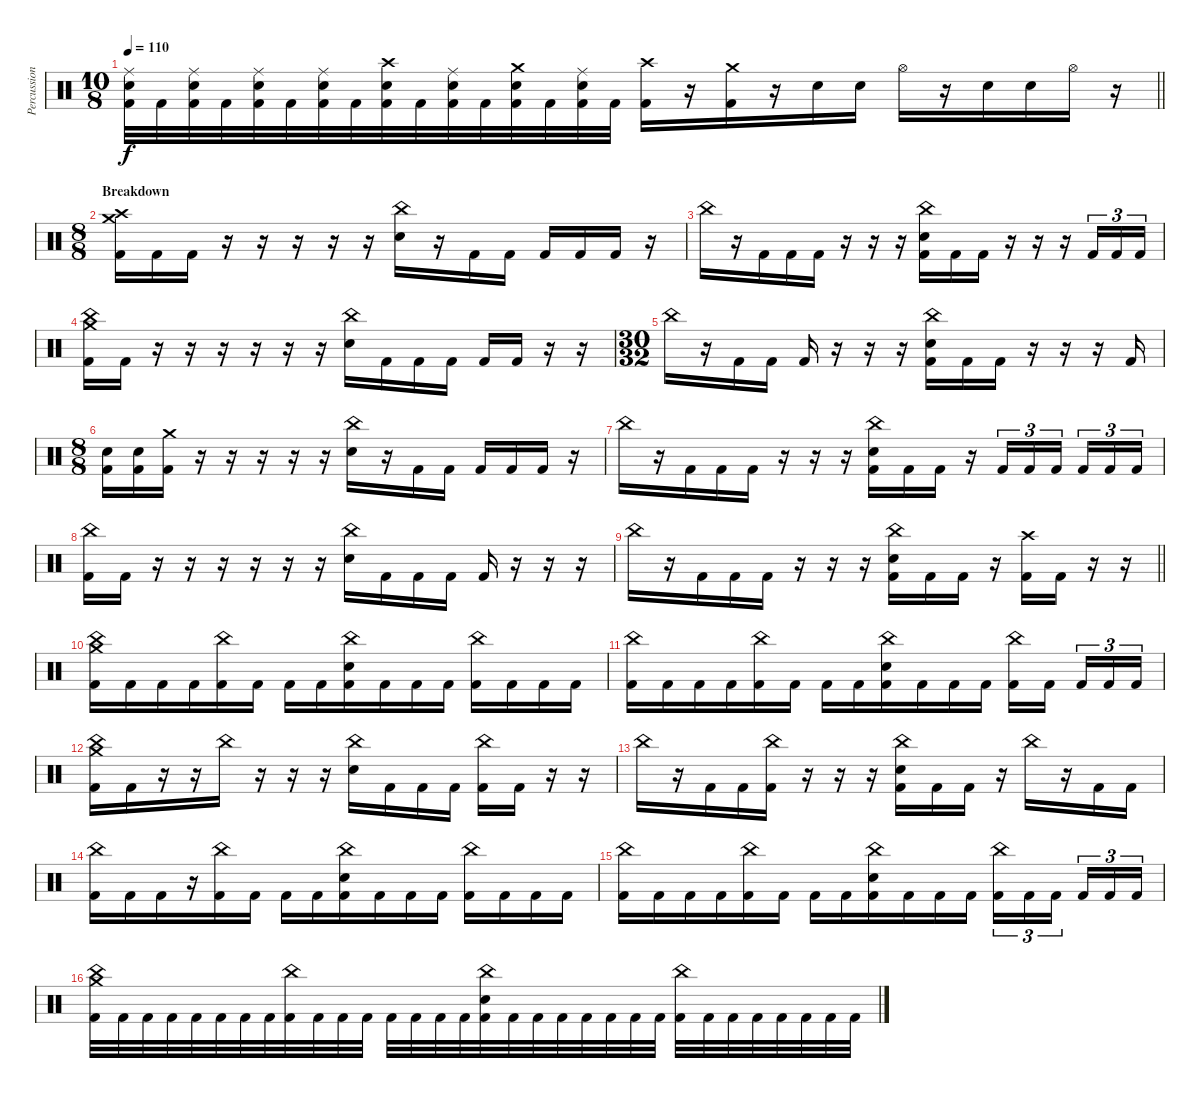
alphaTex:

\track ("Percussion" "Percussion") {instrument percussion}
\staff {score}
\articulation defaults
\ts (10 8)
\tempo 110
\clef neutral
\barLineRight lightlight
\ks c
("Ride (middle)" "Snare (hit) 2" "Kick (hit) 2").32{dy f} "Kick (hit) 2".32 ("Ride (middle)" "Snare (hit) 2" "Kick (hit) 2").32 "Kick (hit) 2".32 ("Ride (middle)" "Snare (hit) 2" "Kick (hit) 2").32 "Kick (hit) 2".32 ("Ride (middle)" "Snare (hit) 2" "Kick (hit) 2").32 "Kick (hit) 2".32 ("Crash high (hit)" "Snare (hit) 2" "Kick (hit) 2").32 "Kick (hit) 2".32 ("Ride (middle)" "Snare (hit) 2" "Kick (hit) 2").32 "Kick (hit) 2".32 ("Crash medium (hit)" "Snare (hit) 2" "Kick (hit) 2").32 "Kick (hit) 2".32 ("Ride (middle)" "Snare (hit) 2" "Kick (hit) 2").32 "Kick (hit) 2".32 ("Crash high (hit)" "Kick (hit) 2").16 r.16 ("Crash medium (hit)" "Kick (hit) 2").16 r.16 "Snare (hit) 2".16 "Snare (hit) 2".16 "Hi-Hat (open)".16 r.16 "Snare (hit) 2".16 "Snare (hit) 2".16 "Hi-Hat (open)".16 r.16 |
\ts (8 8)
\section ("" "Breakdown")
("Crash medium (hit)" "Crash high (hit)" "Kick (hit) 2").16 "Kick (hit) 2".16 "Kick (hit) 2".16 r.16 r.16 r.16 r.16 r.16 ("China (hit)" "Snare (hit) 2").16 r.16 "Kick (hit) 2".16 "Kick (hit) 2".16 "Kick (hit) 2".16 "Kick (hit) 2".16 "Kick (hit) 2".16 r.16 |
"China (hit)".16 r.16 "Kick (hit) 2".16 "Kick (hit) 2".16 "Kick (hit) 2".16 r.16 r.16 r.16 ("China (hit)" "Snare (hit) 2" "Kick (hit) 2").16 "Kick (hit) 2".16 "Kick (hit) 2".16 r.16 r.16 r.16 "Kick (hit) 2".16{tu (3 2)} "Kick (hit) 2".16{tu (3 2)} "Kick (hit) 2".16{tu (3 2)} |
("Crash medium (hit)" "China (hit)" "Kick (hit) 2").16 "Kick (hit) 2".16 r.16 r.16 r.16 r.16 r.16 r.16 ("China (hit)" "Snare (hit) 2").16 "Kick (hit) 2".16 "Kick (hit) 2".16 "Kick (hit) 2".16 "Kick (hit) 2".16 "Kick (hit) 2".16 r.16 r.16 |
\ts (30 32)
"China (hit)".16 r.16 "Kick (hit) 2".16 "Kick (hit) 2".16 "Kick (hit) 2".16 r.16 r.16 r.16 ("China (hit)" "Snare (hit) 2" "Kick (hit) 2").16 "Kick (hit) 2".16 "Kick (hit) 2".16 r.16 r.16 r.16 "Kick (hit) 2".16 |
\ts (8 8)
("Snare (hit) 2" "Kick (hit) 2").16 ("Snare (hit) 2" "Kick (hit) 2").16 ("Crash medium (hit)" "Kick (hit) 2").16 r.16 r.16 r.16 r.16 r.16 ("China (hit)" "Snare (hit) 2").16 r.16 "Kick (hit) 2".16 "Kick (hit) 2".16 "Kick (hit) 2".16 "Kick (hit) 2".16 "Kick (hit) 2".16 r.16 |
"China (hit)".16 r.16 "Kick (hit) 2".16 "Kick (hit) 2".16 "Kick (hit) 2".16 r.16 r.16 r.16 ("China (hit)" "Snare (hit) 2" "Kick (hit) 2").16 "Kick (hit) 2".16 "Kick (hit) 2".16 r.16 "Kick (hit) 2".16{tu (3 2)} "Kick (hit) 2".16{tu (3 2)} "Kick (hit) 2".16{tu (3 2)} "Kick (hit) 2".16{tu (3 2)} "Kick (hit) 2".16{tu (3 2)} "Kick (hit) 2".16{tu (3 2)} |
("China (hit)" "Kick (hit) 2").16 "Kick (hit) 2".16 r.16 r.16 r.16 r.16 r.16 r.16 ("China (hit)" "Snare (hit) 2").16 "Kick (hit) 2".16 "Kick (hit) 2".16 "Kick (hit) 2".16 "Kick (hit) 2".16 r.16 r.16 r.16 |
\barLineRight lightlight "China (hit)".16
r.16 "Kick (hit) 2".16 "Kick (hit) 2".16 "Kick (hit) 2".16 r.16 r.16 r.16 ("China (hit)" "Snare (hit) 2" "Kick (hit) 2").16 "Kick (hit) 2".16 "Kick (hit) 2".16 r.16 ("Crash high (hit)" "Kick (hit) 2").16 "Kick (hit) 2".16 r.16 r.16 |
("Crash medium (hit)" "China (hit)" "Kick (hit) 2").16 "Kick (hit) 2".16 "Kick (hit) 2".16 "Kick (hit) 2".16 ("China (hit)" "Kick (hit) 2").16 "Kick (hit) 2".16 "Kick (hit) 2".16 "Kick (hit) 2".16 ("China (hit)" "Snare (hit) 2" "Kick (hit) 2").16 "Kick (hit) 2".16 "Kick (hit) 2".16 "Kick (hit) 2".16 ("China (hit)" "Kick (hit) 2").16 "Kick (hit) 2".16 "Kick (hit) 2".16 "Kick (hit) 2".16 |
("China (hit)" "Kick (hit) 2").16 "Kick (hit) 2".16 "Kick (hit) 2".16 "Kick (hit) 2".16 ("China (hit)" "Kick (hit) 2").16 "Kick (hit) 2".16 "Kick (hit) 2".16 "Kick (hit) 2".16 ("China (hit)" "Snare (hit) 2" "Kick (hit) 2").16 "Kick (hit) 2".16 "Kick (hit) 2".16 "Kick (hit) 2".16 ("China (hit)" "Kick (hit) 2").16 "Kick (hit) 2".16 "Kick (hit) 2".16{tu (3 2)} "Kick (hit) 2".16{tu (3 2)} "Kick (hit) 2".16{tu (3 2)} |
("Crash medium (hit)" "China (hit)" "Kick (hit) 2").16 "Kick (hit) 2".16 r.16 r.16 "China (hit)".16 r.16 r.16 r.16 ("China (hit)" "Snare (hit) 2").16 "Kick (hit) 2".16 "Kick (hit) 2".16 "Kick (hit) 2".16 ("China (hit)" "Kick (hit) 2").16 "Kick (hit) 2".16 r.16 r.16 |
"China (hit)".16 r.16 "Kick (hit) 2".16 "Kick (hit) 2".16 ("China (hit)" "Kick (hit) 2").16 r.16 r.16 r.16 ("China (hit)" "Snare (hit) 2" "Kick (hit) 2").16 "Kick (hit) 2".16 "Kick (hit) 2".16 r.16 "China (hit)".16 r.16 "Kick (hit) 2".16 "Kick (hit) 2".16 |
("China (hit)" "Kick (hit) 2").16 "Kick (hit) 2".16 "Kick (hit) 2".16 r.16 ("China (hit)" "Kick (hit) 2").16 "Kick (hit) 2".16 "Kick (hit) 2".16 "Kick (hit) 2".16 ("China (hit)" "Snare (hit) 2" "Kick (hit) 2").16 "Kick (hit) 2".16 "Kick (hit) 2".16 "Kick (hit) 2".16 ("China (hit)" "Kick (hit) 2").16 "Kick (hit) 2".16 "Kick (hit) 2".16 "Kick (hit) 2".16 |
("China (hit)" "Kick (hit) 2").16 "Kick (hit) 2".16 "Kick (hit) 2".16 "Kick (hit) 2".16 ("China (hit)" "Kick (hit) 2").16 "Kick (hit) 2".16 "Kick (hit) 2".16 "Kick (hit) 2".16 ("China (hit)" "Snare (hit) 2" "Kick (hit) 2").16 "Kick (hit) 2".16 "Kick (hit) 2".16 "Kick (hit) 2".16 ("China (hit)" "Kick (hit) 2").16{tu (3 2)} "Kick (hit) 2".16{tu (3 2)} "Kick (hit) 2".16{tu (3 2)} "Kick (hit) 2".16{tu (3 2)} "Kick (hit) 2".16{tu (3 2)} "Kick (hit) 2".16{tu (3 2)} |
("Crash medium (hit)" "China (hit)" "Kick (hit) 2").32 "Kick (hit) 2".32 "Kick (hit) 2".32 "Kick (hit) 2".32 "Kick (hit) 2".32 "Kick (hit) 2".32 "Kick (hit) 2".32 "Kick (hit) 2".32 ("China (hit)" "Kick (hit) 2").32 "Kick (hit) 2".32 "Kick (hit) 2".32 "Kick (hit) 2".32 "Kick (hit) 2".32 "Kick (hit) 2".32 "Kick (hit) 2".32 "Kick (hit) 2".32 ("China (hit)" "Snare (hit) 2" "Kick (hit) 2").32 "Kick (hit) 2".32 "Kick (hit) 2".32 "Kick (hit) 2".32 "Kick (hit) 2".32 "Kick (hit) 2".32 "Kick (hit) 2".32 "Kick (hit) 2".32 ("China (hit)" "Kick (hit) 2").32 "Kick (hit) 2".32 "Kick (hit) 2".32 "Kick (hit) 2".32 "Kick (hit) 2".32 "Kick (hit) 2".32 "Kick (hit) 2".32 "Kick (hit) 2".32
